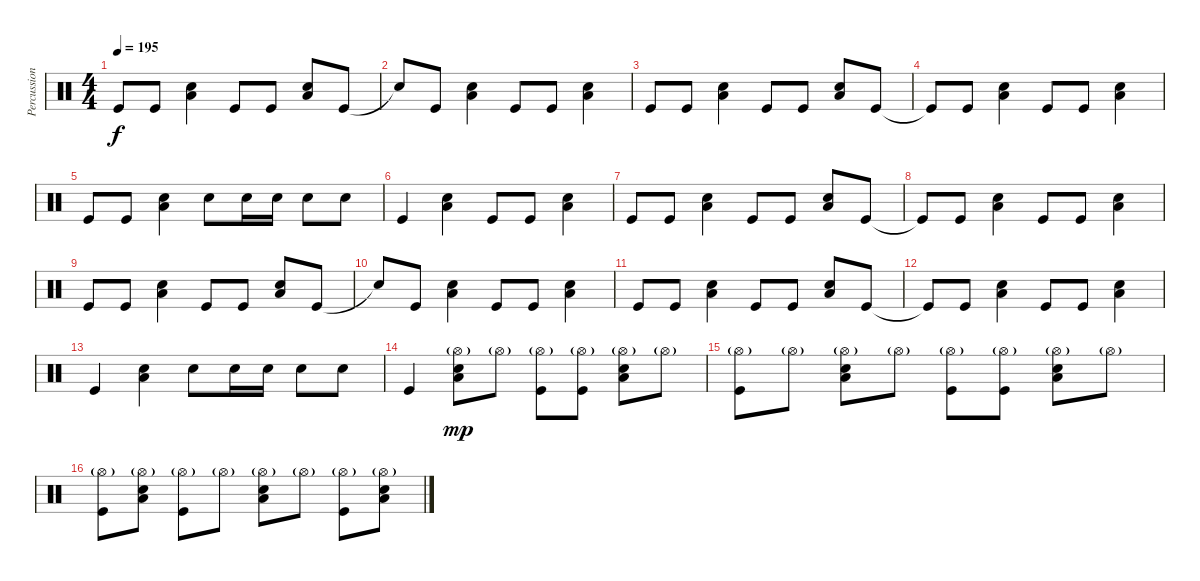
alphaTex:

\track ("Percussion" "Percussion") {instrument percussion}
\staff {score}
\articulation defaults
\ts (4 4)
\tempo 195
\clef neutral
\ks c "Kick (hit)".8{dy f} "Kick (hit)".8
("Low Tom (hit)" "Snare (hit) 2").4 "Kick (hit)".8 "Kick (hit)".8 ("Low Tom (hit)" "Snare (hit) 2").8 "Kick (hit)".8 |
"Snare (hit)"{t}.8 "Kick (hit)".8 ("Low Tom (hit)" "Snare (hit) 2").4 "Kick (hit)".8 "Kick (hit)".8 ("Low Tom (hit)" "Snare (hit) 2").4 |
"Kick (hit)".8 "Kick (hit)".8 ("Low Tom (hit)" "Snare (hit) 2").4 "Kick (hit)".8 "Kick (hit)".8 ("Low Tom (hit)" "Snare (hit) 2").8 "Kick (hit)".8 |
"Kick (hit)"{t}.8 "Kick (hit)".8 ("Low Tom (hit)" "Snare (hit) 2").4 "Kick (hit)".8 "Kick (hit)".8 ("Low Tom (hit)" "Snare (hit) 2").4 |
"Kick (hit)".8 "Kick (hit)".8 ("Low Tom (hit)" "Snare (hit) 2").4 "Snare (hit) 2".8 "Snare (hit) 2".16 "Snare (hit) 2".16 "Snare (hit) 2".8 "Snare (hit) 2".8 |
"Kick (hit)".4 ("Low Tom (hit)" "Snare (hit) 2").4 "Kick (hit)".8 "Kick (hit)".8 ("Low Tom (hit)" "Snare (hit) 2").4 |
"Kick (hit)".8 "Kick (hit)".8 ("Low Tom (hit)" "Snare (hit) 2").4 "Kick (hit)".8 "Kick (hit)".8 ("Low Tom (hit)" "Snare (hit) 2").8 "Kick (hit)".8 |
"Kick (hit)"{t}.8 "Kick (hit)".8 ("Low Tom (hit)" "Snare (hit) 2").4 "Kick (hit)".8 "Kick (hit)".8 ("Low Tom (hit)" "Snare (hit) 2").4 |
"Kick (hit)".8 "Kick (hit)".8 ("Low Tom (hit)" "Snare (hit) 2").4 "Kick (hit)".8 "Kick (hit)".8 ("Low Tom (hit)" "Snare (hit) 2").8 "Kick (hit)".8 |
"Snare (hit)"{t}.8 "Kick (hit)".8 ("Low Tom (hit)" "Snare (hit) 2").4 "Kick (hit)".8 "Kick (hit)".8 ("Low Tom (hit)" "Snare (hit) 2").4 |
"Kick (hit)".8 "Kick (hit)".8 ("Low Tom (hit)" "Snare (hit) 2").4 "Kick (hit)".8 "Kick (hit)".8 ("Low Tom (hit)" "Snare (hit) 2").8 "Kick (hit)".8 |
"Kick (hit)"{t}.8 "Kick (hit)".8 ("Low Tom (hit)" "Snare (hit) 2").4 "Kick (hit)".8 "Kick (hit)".8 ("Low Tom (hit)" "Snare (hit) 2").4 |
"Kick (hit)".4 ("Low Tom (hit)" "Snare (hit) 2").4 "Snare (hit) 2".8 "Snare (hit) 2".16 "Snare (hit) 2".16 "Snare (hit) 2".8 "Snare (hit) 2".8 |
"Kick (hit)".4 ("Hi-Hat (open)"{g} "Low Tom (hit)" "Snare (hit) 2").8{dy mp} "Hi-Hat (open)"{g}.8 ("Hi-Hat (open)"{g} "Kick (hit)").8 ("Hi-Hat (open)"{g} "Kick (hit)").8 ("Hi-Hat (open)"{g} "Low Tom (hit)" "Snare (hit) 2").8 "Hi-Hat (open)"{g}.8 |
("Hi-Hat (open)"{g} "Kick (hit)").8 "Hi-Hat (open)"{g}.8 ("Hi-Hat (open)"{g} "Low Tom (hit)" "Snare (hit) 2").8 "Hi-Hat (open)"{g}.8 ("Hi-Hat (open)"{g} "Kick (hit)").8 ("Hi-Hat (open)"{g} "Kick (hit)").8 ("Hi-Hat (open)"{g} "Low Tom (hit)" "Snare (hit) 2").8 "Hi-Hat (open)"{g}.8 |
("Hi-Hat (open)"{g} "Kick (hit)").8 ("Hi-Hat (open)"{g} "Low Tom (hit)" "Snare (hit) 2").8 ("Hi-Hat (open)"{g} "Kick (hit)").8 "Hi-Hat (open)"{g}.8 ("Hi-Hat (open)"{g} "Low Tom (hit)" "Snare (hit) 2").8 "Hi-Hat (open)"{g}.8 ("Hi-Hat (open)"{g} "Kick (hit)").8 ("Hi-Hat (open)"{g} "Low Tom (hit)" "Snare (hit) 2").8
